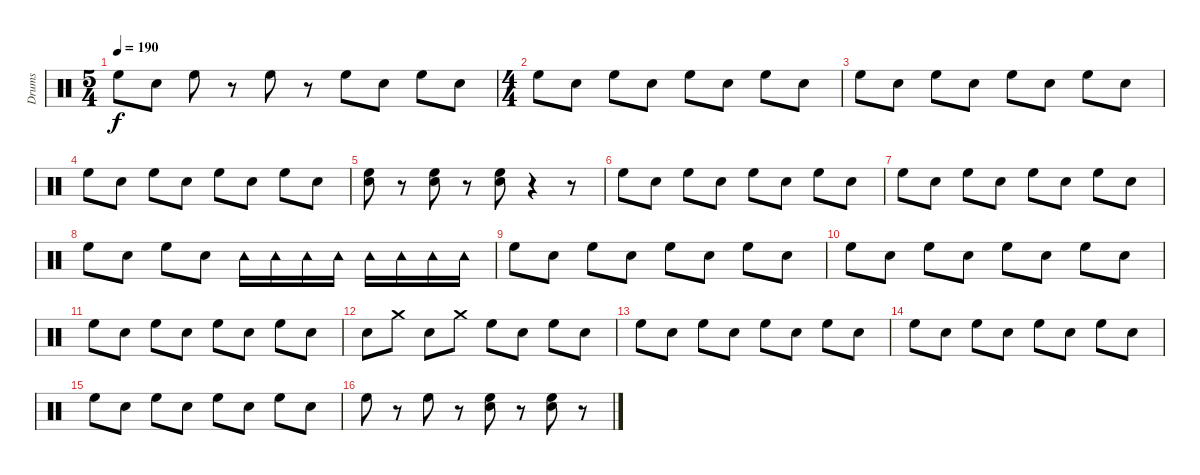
\track ("Drums" "Drums") {instrument percussion}
\staff {score}
\articulation defaults
\ts (5 4)
\tempo 190
\clef neutral
\ks c "High Floor Tom (hit)".8{dy f} "Electric Snare (hit)".8 "High Floor Tom (hit)".8
r.8 "High Floor Tom (hit)".8 r.8 "High Floor Tom (hit)".8 "Electric Snare (hit)".8 "High Floor Tom (hit)".8 "Electric Snare (hit)".8 |
\ts (4 4)
"High Floor Tom (hit)".8 "Electric Snare (hit)".8 "High Floor Tom (hit)".8 "Electric Snare (hit)".8 "High Floor Tom (hit)".8 "Electric Snare (hit)".8 "High Floor Tom (hit)".8 "Electric Snare (hit)".8 |
"High Floor Tom (hit)".8 "Electric Snare (hit)".8 "High Floor Tom (hit)".8 "Electric Snare (hit)".8 "High Floor Tom (hit)".8 "Electric Snare (hit)".8 "High Floor Tom (hit)".8 "Electric Snare (hit)".8 |
"High Floor Tom (hit)".8 "Electric Snare (hit)".8 "High Floor Tom (hit)".8 "Electric Snare (hit)".8 "High Floor Tom (hit)".8 "Electric Snare (hit)".8 "High Floor Tom (hit)".8 "Electric Snare (hit)".8 |
("High Floor Tom (hit)" "Electric Snare (hit)").8 r.8 ("High Floor Tom (hit)" "Electric Snare (hit)").8 r.8 ("High Floor Tom (hit)" "Electric Snare (hit)").8 r.4 r.8 |
"High Floor Tom (hit)".8 "Electric Snare (hit)".8 "High Floor Tom (hit)".8 "Electric Snare (hit)".8 "High Floor Tom (hit)".8 "Electric Snare (hit)".8 "High Floor Tom (hit)".8 "Electric Snare (hit)".8 |
"High Floor Tom (hit)".8 "Electric Snare (hit)".8 "High Floor Tom (hit)".8 "Electric Snare (hit)".8 "High Floor Tom (hit)".8 "Electric Snare (hit)".8 "High Floor Tom (hit)".8 "Electric Snare (hit)".8 |
"High Floor Tom (hit)".8 "Electric Snare (hit)".8 "High Floor Tom (hit)".8 "Electric Snare (hit)".8 "Tambourine (hit)".16 "Tambourine (hit)".16 "Tambourine (hit)".16 "Tambourine (hit)".16 "Tambourine (hit)".16 "Tambourine (hit)".16 "Tambourine (hit)".16 "Tambourine (hit)".16 |
"High Floor Tom (hit)".8 "Electric Snare (hit)".8 "High Floor Tom (hit)".8 "Electric Snare (hit)".8 "High Floor Tom (hit)".8 "Electric Snare (hit)".8 "High Floor Tom (hit)".8 "Electric Snare (hit)".8 |
"High Floor Tom (hit)".8 "Electric Snare (hit)".8 "High Floor Tom (hit)".8 "Electric Snare (hit)".8 "High Floor Tom (hit)".8 "Electric Snare (hit)".8 "High Floor Tom (hit)".8 "Electric Snare (hit)".8 |
"High Floor Tom (hit)".8 "Electric Snare (hit)".8 "High Floor Tom (hit)".8 "Electric Snare (hit)".8 "High Floor Tom (hit)".8 "Electric Snare (hit)".8 "High Floor Tom (hit)".8 "Electric Snare (hit)".8 |
"Electric Snare (hit)".8 "Crash medium (hit)".8 "Electric Snare (hit)".8 "Crash medium (hit)".8 "High Floor Tom (hit)".8 "Electric Snare (hit)".8 "High Floor Tom (hit)".8 "Electric Snare (hit)".8 |
"High Floor Tom (hit)".8 "Electric Snare (hit)".8 "High Floor Tom (hit)".8 "Electric Snare (hit)".8 "High Floor Tom (hit)".8 "Electric Snare (hit)".8 "High Floor Tom (hit)".8 "Electric Snare (hit)".8 |
"High Floor Tom (hit)".8 "Electric Snare (hit)".8 "High Floor Tom (hit)".8 "Electric Snare (hit)".8 "High Floor Tom (hit)".8 "Electric Snare (hit)".8 "High Floor Tom (hit)".8 "Electric Snare (hit)".8 |
"High Floor Tom (hit)".8 "Electric Snare (hit)".8 "High Floor Tom (hit)".8 "Electric Snare (hit)".8 "High Floor Tom (hit)".8 "Electric Snare (hit)".8 "High Floor Tom (hit)".8 "Electric Snare (hit)".8 |
"High Floor Tom (hit)".8 r.8 "High Floor Tom (hit)".8 r.8 ("High Floor Tom (hit)" "Electric Snare (hit)").8 r.8 ("Electric Snare (hit)" "High Floor Tom (hit)").8 r.8
